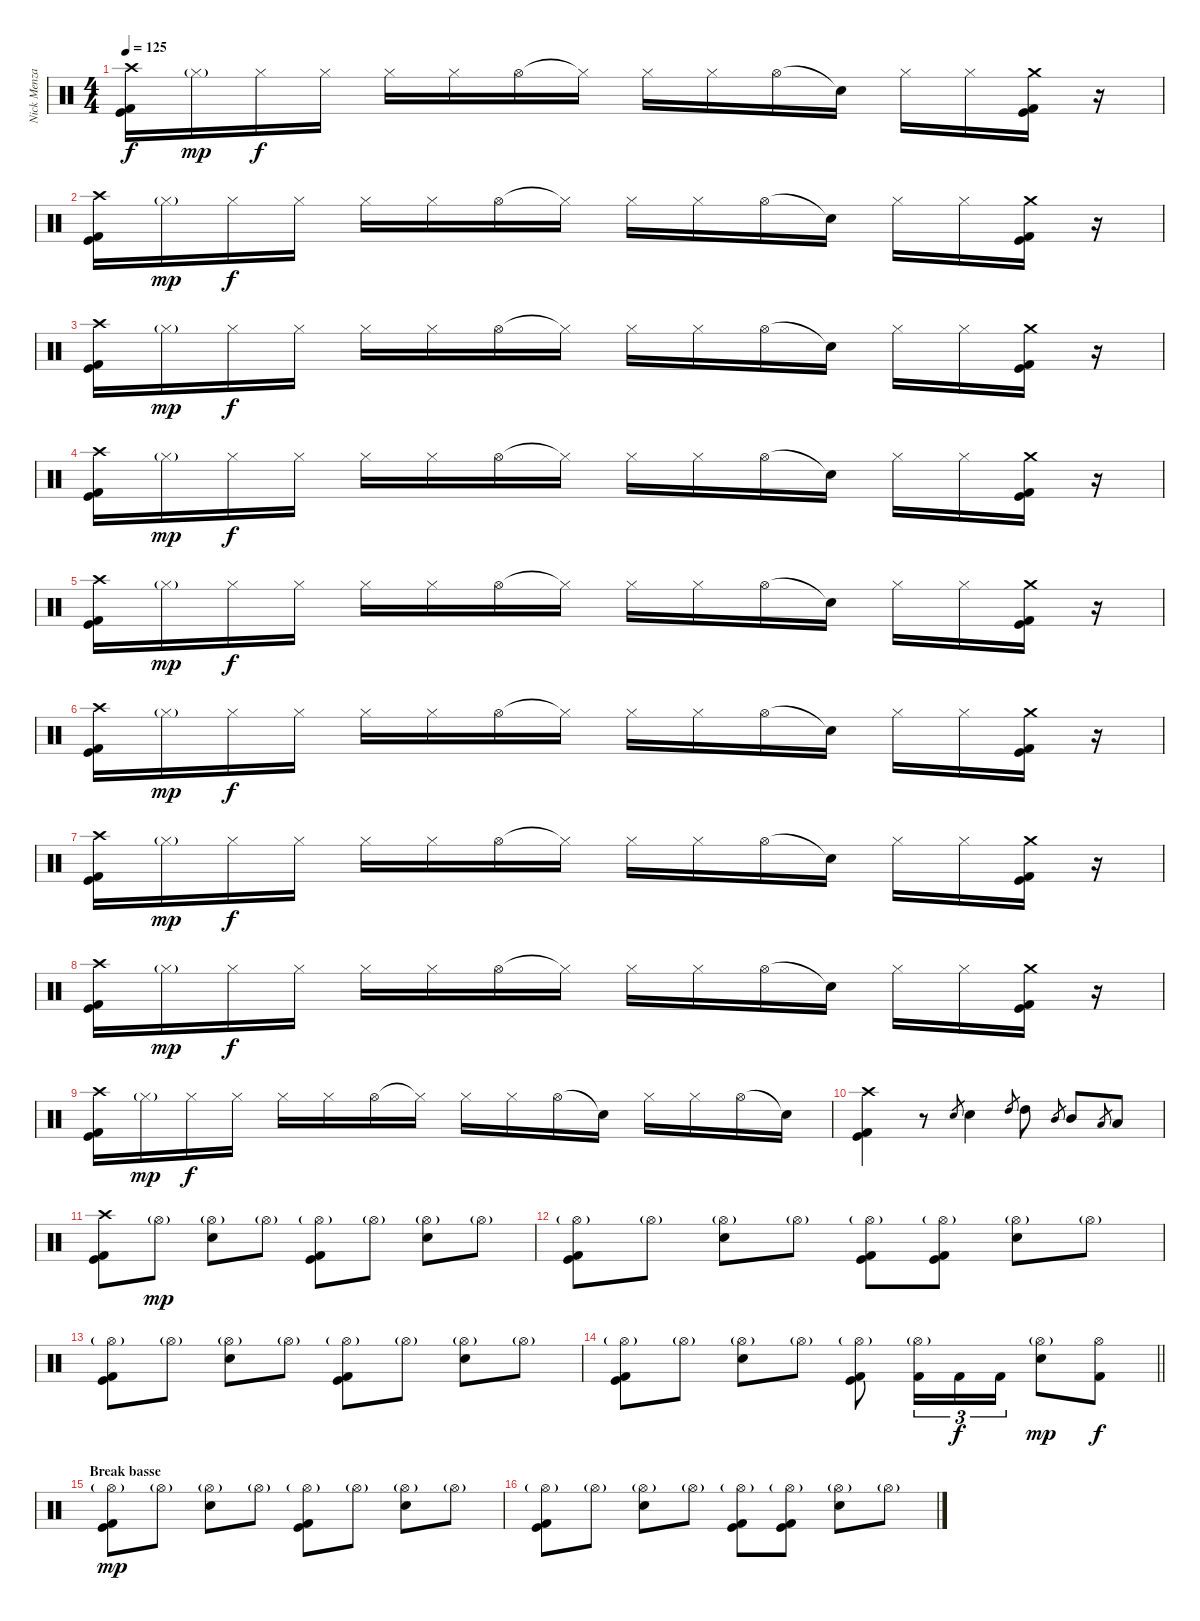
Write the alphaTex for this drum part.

\track ("Nick Menza" "Nick Menza") {instrument percussion}
\staff {score}
\articulation defaults
\ts (4 4)
\tempo 125
\clef neutral
\ks c
("Crash high (hit)" "Kick (hit)" "Kick (hit) 2").16{dy f} "Hi-Hat (closed)"{g}.16{dy mp} "Hi-Hat (closed)".16{dy f} "Hi-Hat (closed)".16 "Hi-Hat (closed)".16 "Hi-Hat (closed)".16 "Hi-Hat (open)".16 "Hi-Hat (closed)"{t}.16 "Hi-Hat (closed)".16 "Hi-Hat (closed)".16 "Hi-Hat (open)".16 "Snare (hit)"{t}.16 "Hi-Hat (closed)".16 "Hi-Hat (closed)".16 ("Crash medium (hit)" "Kick (hit)" "Kick (hit) 2").16 r.16 |
("Crash high (hit)" "Kick (hit)" "Kick (hit) 2").16 "Hi-Hat (closed)"{g}.16{dy mp} "Hi-Hat (closed)".16{dy f} "Hi-Hat (closed)".16 "Hi-Hat (closed)".16 "Hi-Hat (closed)".16 "Hi-Hat (open)".16 "Hi-Hat (closed)"{t}.16 "Hi-Hat (closed)".16 "Hi-Hat (closed)".16 "Hi-Hat (open)".16 "Snare (hit)"{t}.16 "Hi-Hat (closed)".16 "Hi-Hat (closed)".16 ("Crash medium (hit)" "Kick (hit)" "Kick (hit) 2").16 r.16 |
("Crash high (hit)" "Kick (hit)" "Kick (hit) 2").16 "Hi-Hat (closed)"{g}.16{dy mp} "Hi-Hat (closed)".16{dy f} "Hi-Hat (closed)".16 "Hi-Hat (closed)".16 "Hi-Hat (closed)".16 "Hi-Hat (open)".16 "Hi-Hat (closed)"{t}.16 "Hi-Hat (closed)".16 "Hi-Hat (closed)".16 "Hi-Hat (open)".16 "Snare (hit)"{t}.16 "Hi-Hat (closed)".16 "Hi-Hat (closed)".16 ("Crash medium (hit)" "Kick (hit)" "Kick (hit) 2").16 r.16 |
("Crash high (hit)" "Kick (hit)" "Kick (hit) 2").16 "Hi-Hat (closed)"{g}.16{dy mp} "Hi-Hat (closed)".16{dy f} "Hi-Hat (closed)".16 "Hi-Hat (closed)".16 "Hi-Hat (closed)".16 "Hi-Hat (open)".16 "Hi-Hat (closed)"{t}.16 "Hi-Hat (closed)".16 "Hi-Hat (closed)".16 "Hi-Hat (open)".16 "Snare (hit)"{t}.16 "Hi-Hat (closed)".16 "Hi-Hat (closed)".16 ("Crash medium (hit)" "Kick (hit)" "Kick (hit) 2").16 r.16 |
("Crash high (hit)" "Kick (hit)" "Kick (hit) 2").16 "Hi-Hat (closed)"{g}.16{dy mp} "Hi-Hat (closed)".16{dy f} "Hi-Hat (closed)".16 "Hi-Hat (closed)".16 "Hi-Hat (closed)".16 "Hi-Hat (open)".16 "Hi-Hat (closed)"{t}.16 "Hi-Hat (closed)".16 "Hi-Hat (closed)".16 "Hi-Hat (open)".16 "Snare (hit)"{t}.16 "Hi-Hat (closed)".16 "Hi-Hat (closed)".16 ("Crash medium (hit)" "Kick (hit)" "Kick (hit) 2").16 r.16 |
("Crash high (hit)" "Kick (hit)" "Kick (hit) 2").16 "Hi-Hat (closed)"{g}.16{dy mp} "Hi-Hat (closed)".16{dy f} "Hi-Hat (closed)".16 "Hi-Hat (closed)".16 "Hi-Hat (closed)".16 "Hi-Hat (open)".16 "Hi-Hat (closed)"{t}.16 "Hi-Hat (closed)".16 "Hi-Hat (closed)".16 "Hi-Hat (open)".16 "Snare (hit)"{t}.16 "Hi-Hat (closed)".16 "Hi-Hat (closed)".16 ("Crash medium (hit)" "Kick (hit)" "Kick (hit) 2").16 r.16 |
("Crash high (hit)" "Kick (hit)" "Kick (hit) 2").16 "Hi-Hat (closed)"{g}.16{dy mp} "Hi-Hat (closed)".16{dy f} "Hi-Hat (closed)".16 "Hi-Hat (closed)".16 "Hi-Hat (closed)".16 "Hi-Hat (open)".16 "Hi-Hat (closed)"{t}.16 "Hi-Hat (closed)".16 "Hi-Hat (closed)".16 "Hi-Hat (open)".16 "Snare (hit)"{t}.16 "Hi-Hat (closed)".16 "Hi-Hat (closed)".16 ("Crash medium (hit)" "Kick (hit)" "Kick (hit) 2").16 r.16 |
("Crash high (hit)" "Kick (hit)" "Kick (hit) 2").16 "Hi-Hat (closed)"{g}.16{dy mp} "Hi-Hat (closed)".16{dy f} "Hi-Hat (closed)".16 "Hi-Hat (closed)".16 "Hi-Hat (closed)".16 "Hi-Hat (open)".16 "Hi-Hat (closed)"{t}.16 "Hi-Hat (closed)".16 "Hi-Hat (closed)".16 "Hi-Hat (open)".16 "Snare (hit)"{t}.16 "Hi-Hat (closed)".16 "Hi-Hat (closed)".16 ("Crash medium (hit)" "Kick (hit)" "Kick (hit) 2").16 r.16 |
("Crash high (hit)" "Kick (hit)" "Kick (hit) 2").16 "Hi-Hat (closed)"{g}.16{dy mp} "Hi-Hat (closed)".16{dy f} "Hi-Hat (closed)".16 "Hi-Hat (closed)".16 "Hi-Hat (closed)".16 "Hi-Hat (open)".16 "Hi-Hat (closed)"{t}.16 "Hi-Hat (closed)".16 "Hi-Hat (closed)".16 "Hi-Hat (open)".16 "Snare (hit)"{t}.16 "Hi-Hat (closed)".16 "Hi-Hat (closed)".16 "Hi-Hat (open)".16 "Snare (hit)"{t}.16 |
("Crash high (hit)" "Kick (hit)" "Kick (hit) 2").4 r.8 "Electric Snare (hit)".8{gr} "Electric Snare (hit)".4 "High Tom (hit)".8{gr} "High Tom (hit)".8 "Mid Tom (hit)".8{gr} "Mid Tom (hit)".8 "Low Tom (hit)".8{gr} "Low Tom (hit)".8 |
("Crash high (hit)" "Kick (hit)" "Kick (hit) 2").8 "Hi-Hat (open)"{g}.8{dy mp} ("Hi-Hat (open)"{g} "Electric Snare (hit)").8 "Hi-Hat (open)"{g}.8 ("Hi-Hat (open)"{g} "Kick (hit)" "Kick (hit) 2").8 "Hi-Hat (open)"{g}.8 ("Hi-Hat (open)"{g} "Electric Snare (hit)").8 "Hi-Hat (open)"{g}.8 |
("Hi-Hat (open)"{g} "Kick (hit)" "Kick (hit) 2").8 "Hi-Hat (open)"{g}.8 ("Hi-Hat (open)"{g} "Electric Snare (hit)").8 "Hi-Hat (open)"{g}.8 ("Hi-Hat (open)"{g} "Kick (hit)" "Kick (hit) 2").8 ("Hi-Hat (open)"{g} "Kick (hit)" "Kick (hit) 2").8 ("Hi-Hat (open)"{g} "Electric Snare (hit)").8 "Hi-Hat (open)"{g}.8 |
("Hi-Hat (open)"{g} "Kick (hit)" "Kick (hit) 2").8 "Hi-Hat (open)"{g}.8 ("Hi-Hat (open)"{g} "Electric Snare (hit)").8 "Hi-Hat (open)"{g}.8 ("Hi-Hat (open)"{g} "Kick (hit)" "Kick (hit) 2").8 "Hi-Hat (open)"{g}.8 ("Hi-Hat (open)"{g} "Electric Snare (hit)").8 "Hi-Hat (open)"{g}.8 |
\barLineRight lightlight
("Hi-Hat (open)"{g} "Kick (hit)" "Kick (hit) 2").8 "Hi-Hat (open)"{g}.8 ("Hi-Hat (open)"{g} "Electric Snare (hit)").8 "Hi-Hat (open)"{g}.8 ("Hi-Hat (open)"{g} "Kick (hit)" "Kick (hit) 2").8 ("Hi-Hat (open)"{g} "Kick (hit) 2").16{tu (3 2)} "Kick (hit) 2".16{tu (3 2) dy f} "Kick (hit) 2".16{tu (3 2)} ("Hi-Hat (open)"{g} "Electric Snare (hit)").8{dy mp} ("Hi-Hat (open)" "Kick (hit) 2").8{dy f} |
\section ("" "Break basse")
("Hi-Hat (open)"{g} "Kick (hit)" "Kick (hit) 2").8{dy mp} "Hi-Hat (open)"{g}.8 ("Hi-Hat (open)"{g} "Electric Snare (hit)").8 "Hi-Hat (open)"{g}.8 ("Hi-Hat (open)"{g} "Kick (hit)" "Kick (hit) 2").8 "Hi-Hat (open)"{g}.8 ("Hi-Hat (open)"{g} "Electric Snare (hit)").8 "Hi-Hat (open)"{g}.8 |
("Hi-Hat (open)"{g} "Kick (hit)" "Kick (hit) 2").8 "Hi-Hat (open)"{g}.8 ("Hi-Hat (open)"{g} "Electric Snare (hit)").8 "Hi-Hat (open)"{g}.8 ("Hi-Hat (open)"{g} "Kick (hit)" "Kick (hit) 2").8 ("Hi-Hat (open)"{g} "Kick (hit)" "Kick (hit) 2").8 ("Hi-Hat (open)"{g} "Electric Snare (hit)").8 "Hi-Hat (open)"{g}.8
